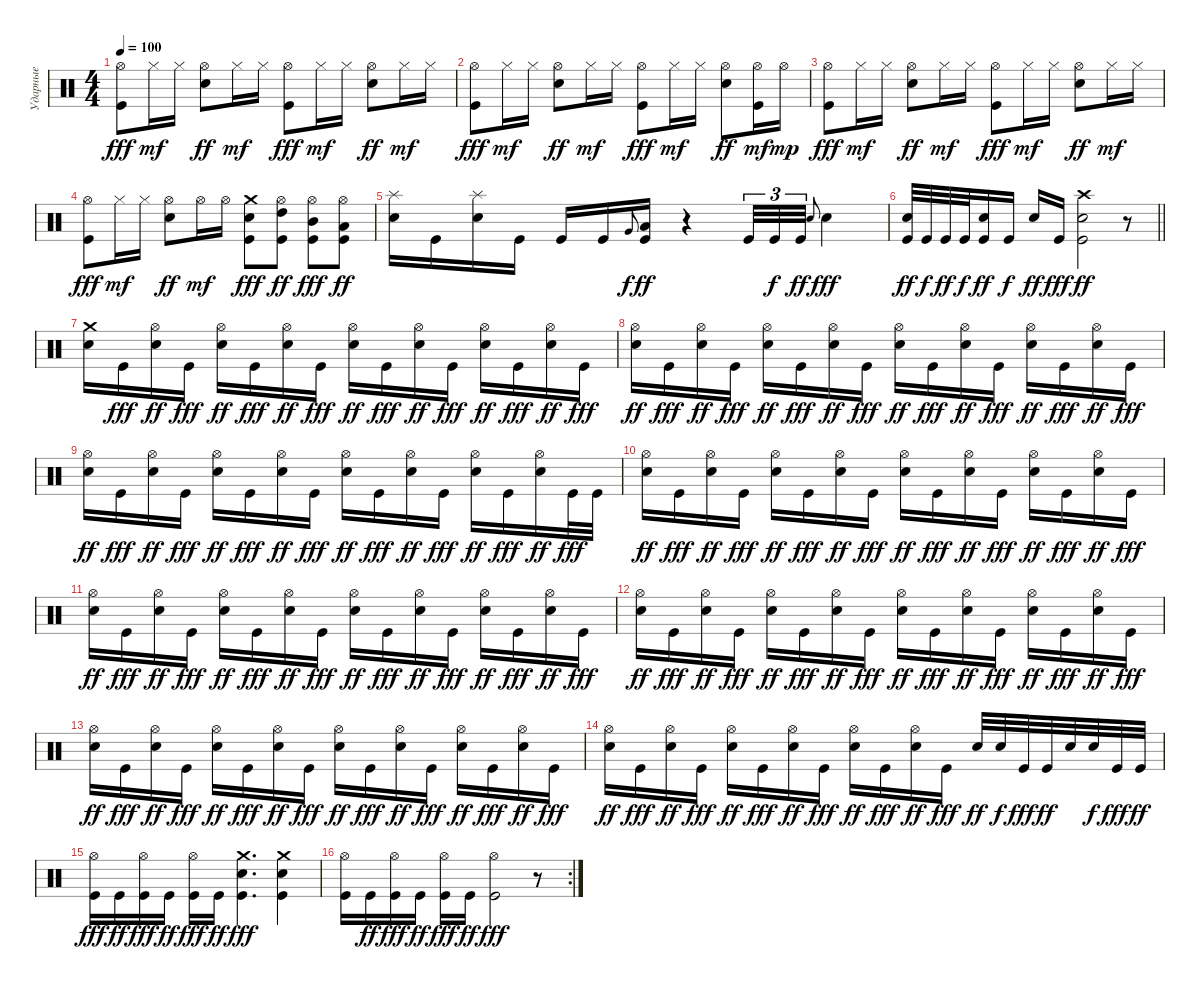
\track ("Ударные" "Ударные") {instrument percussion}
\staff {score}
\articulation defaults
\ts (4 4)
\tempo 100
\clef neutral
\ks c
("Hi-Hat (open)" "Kick (hit)").8{dy fff} "Hi-Hat (closed)".16{dy mf} "Hi-Hat (closed)".16 ("Hi-Hat (open)" "Electric Snare (hit)").8{dy ff} "Hi-Hat (closed)".16{dy mf} "Hi-Hat (closed)".16 ("Hi-Hat (open)" "Kick (hit)").8{dy fff} "Hi-Hat (closed)".16{dy mf} "Hi-Hat (closed)".16 ("Hi-Hat (open)" "Electric Snare (hit)").8{dy ff} "Hi-Hat (closed)".16{dy mf} "Hi-Hat (closed)".16 |
("Hi-Hat (open)" "Kick (hit)").8{dy fff} "Hi-Hat (closed)".16{dy mf} "Hi-Hat (closed)".16 ("Hi-Hat (open)" "Electric Snare (hit)").8{dy ff} "Hi-Hat (closed)".16{dy mf} "Hi-Hat (closed)".16 ("Hi-Hat (open)" "Kick (hit)").8{dy fff} "Hi-Hat (closed)".16{dy mf} "Hi-Hat (closed)".16 ("Hi-Hat (open)" "Electric Snare (hit)").8{dy ff} ("Hi-Hat (open)" "Kick (hit)").16{dy mf} "Hi-Hat (open)".16{dy mp} |
("Hi-Hat (open)" "Kick (hit)").8{dy fff} "Hi-Hat (closed)".16{dy mf} "Hi-Hat (closed)".16 ("Hi-Hat (open)" "Electric Snare (hit)").8{dy ff} "Hi-Hat (closed)".16{dy mf} "Hi-Hat (closed)".16 ("Hi-Hat (open)" "Kick (hit)").8{dy fff} "Hi-Hat (closed)".16{dy mf} "Hi-Hat (closed)".16 ("Hi-Hat (open)" "Electric Snare (hit)").8{dy ff} "Hi-Hat (closed)".16{dy mf} "Hi-Hat (closed)".16 |
("Hi-Hat (open)" "Kick (hit)").8{dy fff} "Hi-Hat (closed)".16{dy mf} "Hi-Hat (closed)".16 ("Hi-Hat (open)" "Electric Snare (hit)").8{dy ff} "Hi-Hat (open)".16{dy mf} "Hi-Hat (open)".16 ("Crash medium (hit)" "Electric Snare (hit)" "Kick (hit)").8{dy fff} ("High Tom (hit)" "Hi-Hat (open)" "Kick (hit)").8{dy ff} ("Mid Tom (hit)" "Hi-Hat (open)" "Kick (hit)").8{dy fff} ("Low Tom (hit)" "Hi-Hat (open)" "Kick (hit)").8{dy ff} |
("Splash (hit)" "Electric Snare (hit)").16 "Kick (hit)".16 ("Splash (hit)" "Electric Snare (hit)").16 "Kick (hit)".16 "Kick (hit)".16 "Kick (hit)".16 "Very Low Tom (hit)".8{gr onbeat dy f} ("Low Floor Tom (hit)" "Kick (hit)").16{dy ff} r.4 "Kick (hit)".32{tu (3 2)} "Kick (hit)".32{tu (3 2) dy f} "Kick (hit)".32{tu (3 2) dy ff} "Electric Snare (hit)".8{gr onbeat} "Electric Snare (hit)".4{dy fff} |
\barLineRight lightlight
("Electric Snare (hit)" "Kick (hit)").32{dy ff} "Kick (hit)".32{dy f} "Kick (hit)".32{dy ff} "Kick (hit)".32{dy f} ("Electric Snare (hit)" "Kick (hit)").16{dy ff} "Kick (hit)".16{dy f} "Electric Snare (hit)".16{dy ff} "Kick (hit)".16{dy fff} ("Crash high (hit)" "Electric Snare (hit)" "Kick (hit)").2{dy ff} r.8 |
("Crash medium (hit)" "Electric Snare (hit)").16 "Kick (hit)".16{dy fff} ("Hi-Hat (open)" "Electric Snare (hit)").16{dy ff} "Kick (hit)".16{dy fff} ("Hi-Hat (open)" "Electric Snare (hit)").16{dy ff} "Kick (hit)".16{dy fff} ("Hi-Hat (open)" "Electric Snare (hit)").16{dy ff} "Kick (hit)".16{dy fff} ("Hi-Hat (open)" "Electric Snare (hit)").16{dy ff} "Kick (hit)".16{dy fff} ("Hi-Hat (open)" "Electric Snare (hit)").16{dy ff} "Kick (hit)".16{dy fff} ("Hi-Hat (open)" "Electric Snare (hit)").16{dy ff} "Kick (hit)".16{dy fff} ("Hi-Hat (open)" "Electric Snare (hit)").16{dy ff} "Kick (hit)".16{dy fff} |
("Hi-Hat (open)" "Electric Snare (hit)").16{dy ff} "Kick (hit)".16{dy fff} ("Hi-Hat (open)" "Electric Snare (hit)").16{dy ff} "Kick (hit)".16{dy fff} ("Hi-Hat (open)" "Electric Snare (hit)").16{dy ff} "Kick (hit)".16{dy fff} ("Hi-Hat (open)" "Electric Snare (hit)").16{dy ff} "Kick (hit)".16{dy fff} ("Hi-Hat (open)" "Electric Snare (hit)").16{dy ff} "Kick (hit)".16{dy fff} ("Hi-Hat (open)" "Electric Snare (hit)").16{dy ff} "Kick (hit)".16{dy fff} ("Hi-Hat (open)" "Electric Snare (hit)").16{dy ff} "Kick (hit)".16{dy fff} ("Hi-Hat (open)" "Electric Snare (hit)").16{dy ff} "Kick (hit)".16{dy fff} |
("Hi-Hat (open)" "Electric Snare (hit)").16{dy ff} "Kick (hit)".16{dy fff} ("Hi-Hat (open)" "Electric Snare (hit)").16{dy ff} "Kick (hit)".16{dy fff} ("Hi-Hat (open)" "Electric Snare (hit)").16{dy ff} "Kick (hit)".16{dy fff} ("Hi-Hat (open)" "Electric Snare (hit)").16{dy ff} "Kick (hit)".16{dy fff} ("Hi-Hat (open)" "Electric Snare (hit)").16{dy ff} "Kick (hit)".16{dy fff} ("Hi-Hat (open)" "Electric Snare (hit)").16{dy ff} "Kick (hit)".16{dy fff} ("Hi-Hat (open)" "Electric Snare (hit)").16{dy ff} "Kick (hit)".16{dy fff} ("Hi-Hat (open)" "Electric Snare (hit)").16{dy ff} "Kick (hit)".32{dy fff} "Kick (hit)".32 |
("Hi-Hat (open)" "Electric Snare (hit)").16{dy ff} "Kick (hit)".16{dy fff} ("Hi-Hat (open)" "Electric Snare (hit)").16{dy ff} "Kick (hit)".16{dy fff} ("Hi-Hat (open)" "Electric Snare (hit)").16{dy ff} "Kick (hit)".16{dy fff} ("Hi-Hat (open)" "Electric Snare (hit)").16{dy ff} "Kick (hit)".16{dy fff} ("Hi-Hat (open)" "Electric Snare (hit)").16{dy ff} "Kick (hit)".16{dy fff} ("Hi-Hat (open)" "Electric Snare (hit)").16{dy ff} "Kick (hit)".16{dy fff} ("Hi-Hat (open)" "Electric Snare (hit)").16{dy ff} "Kick (hit)".16{dy fff} ("Hi-Hat (open)" "Electric Snare (hit)").16{dy ff} "Kick (hit)".16{dy fff} |
("Hi-Hat (open)" "Electric Snare (hit)").16{dy ff} "Kick (hit)".16{dy fff} ("Hi-Hat (open)" "Electric Snare (hit)").16{dy ff} "Kick (hit)".16{dy fff} ("Hi-Hat (open)" "Electric Snare (hit)").16{dy ff} "Kick (hit)".16{dy fff} ("Hi-Hat (open)" "Electric Snare (hit)").16{dy ff} "Kick (hit)".16{dy fff} ("Hi-Hat (open)" "Electric Snare (hit)").16{dy ff} "Kick (hit)".16{dy fff} ("Hi-Hat (open)" "Electric Snare (hit)").16{dy ff} "Kick (hit)".16{dy fff} ("Hi-Hat (open)" "Electric Snare (hit)").16{dy ff} "Kick (hit)".16{dy fff} ("Hi-Hat (open)" "Electric Snare (hit)").16{dy ff} "Kick (hit)".16{dy fff} |
("Hi-Hat (open)" "Electric Snare (hit)").16{dy ff} "Kick (hit)".16{dy fff} ("Hi-Hat (open)" "Electric Snare (hit)").16{dy ff} "Kick (hit)".16{dy fff} ("Hi-Hat (open)" "Electric Snare (hit)").16{dy ff} "Kick (hit)".16{dy fff} ("Hi-Hat (open)" "Electric Snare (hit)").16{dy ff} "Kick (hit)".16{dy fff} ("Hi-Hat (open)" "Electric Snare (hit)").16{dy ff} "Kick (hit)".16{dy fff} ("Hi-Hat (open)" "Electric Snare (hit)").16{dy ff} "Kick (hit)".16{dy fff} ("Hi-Hat (open)" "Electric Snare (hit)").16{dy ff} "Kick (hit)".16{dy fff} ("Hi-Hat (open)" "Electric Snare (hit)").16{dy ff} "Kick (hit)".16{dy fff} |
("Hi-Hat (open)" "Electric Snare (hit)").16{dy ff} "Kick (hit)".16{dy fff} ("Hi-Hat (open)" "Electric Snare (hit)").16{dy ff} "Kick (hit)".16{dy fff} ("Hi-Hat (open)" "Electric Snare (hit)").16{dy ff} "Kick (hit)".16{dy fff} ("Hi-Hat (open)" "Electric Snare (hit)").16{dy ff} "Kick (hit)".16{dy fff} ("Hi-Hat (open)" "Electric Snare (hit)").16{dy ff} "Kick (hit)".16{dy fff} ("Hi-Hat (open)" "Electric Snare (hit)").16{dy ff} "Kick (hit)".16{dy fff} ("Hi-Hat (open)" "Electric Snare (hit)").16{dy ff} "Kick (hit)".16{dy fff} ("Hi-Hat (open)" "Electric Snare (hit)").16{dy ff} "Kick (hit)".16{dy fff} |
("Hi-Hat (open)" "Electric Snare (hit)").16{dy ff} "Kick (hit)".16{dy fff} ("Hi-Hat (open)" "Electric Snare (hit)").16{dy ff} "Kick (hit)".16{dy fff} ("Hi-Hat (open)" "Electric Snare (hit)").16{dy ff} "Kick (hit)".16{dy fff} ("Hi-Hat (open)" "Electric Snare (hit)").16{dy ff} "Kick (hit)".16{dy fff} ("Hi-Hat (open)" "Electric Snare (hit)").16{dy ff} "Kick (hit)".16{dy fff} ("Hi-Hat (open)" "Electric Snare (hit)").16{dy ff} "Kick (hit)".16{dy fff} "Electric Snare (hit)".32{dy ff} "Electric Snare (hit)".32{dy f} "Kick (hit)".32{dy fff} "Kick (hit)".32{dy ff} "Electric Snare (hit)".32 "Electric Snare (hit)".32{dy f} "Kick (hit)".32{dy fff} "Kick (hit)".32{dy ff} |
("Hi-Hat (open)" "Kick (hit)").16{dy fff} "Kick (hit)".16{dy ff} ("Hi-Hat (open)" "Kick (hit)").16{dy fff} "Kick (hit)".16{dy ff} ("Hi-Hat (open)" "Kick (hit)").16{dy fff} "Kick (hit)".16{dy ff} ("Crash medium (hit)" "Electric Snare (hit)" "Kick (hit)").4{d dy fff} ("Crash medium (hit)" "Electric Snare (hit)" "Kick (hit)").4 |
\rc 2
("Hi-Hat (open)" "Kick (hit)").16 "Kick (hit)".16{dy ff} ("Hi-Hat (open)" "Kick (hit)").16{dy fff} "Kick (hit)".16{dy ff} ("Hi-Hat (open)" "Kick (hit)").16{dy fff} "Kick (hit)".16{dy ff} ("Hi-Hat (open)" "Kick (hit)").2{dy fff} r.8
